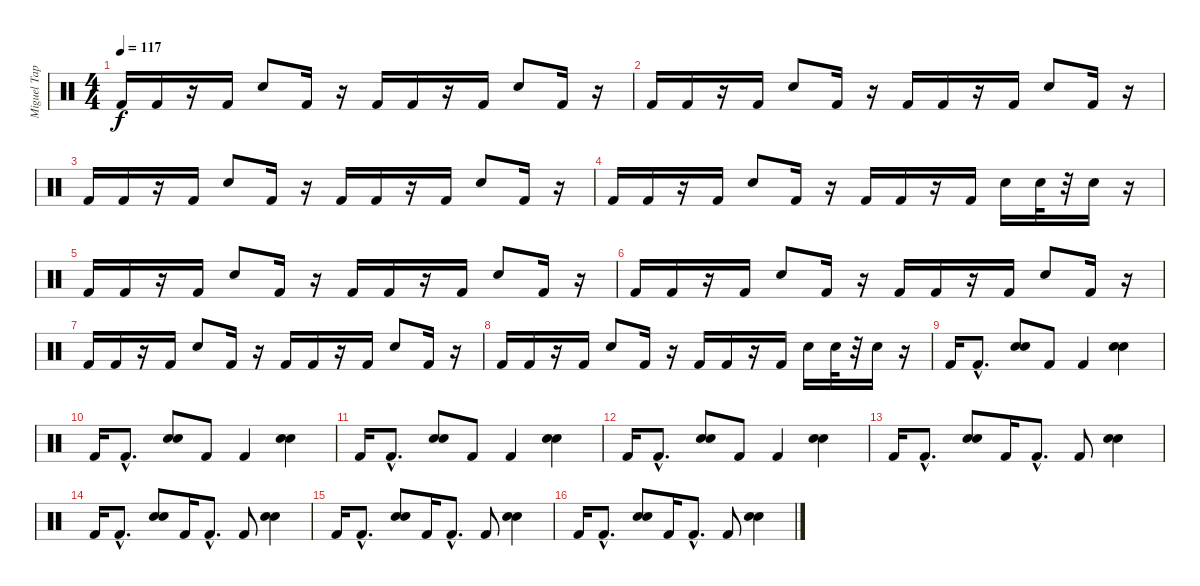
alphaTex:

\track ("Miguel Tapia" "Miguel Tap") {instrument percussion}
\staff {score}
\articulation defaults
\ts (4 4)
\tempo 117
\clef neutral
\ks c "Kick (hit) 2".16{dy f} "Kick (hit) 2".16
r.16 "Kick (hit) 2".16 "Electric Snare (hit)".8 "Kick (hit) 2".16 r.16 "Kick (hit) 2".16 "Kick (hit) 2".16 r.16 "Kick (hit) 2".16 "Electric Snare (hit)".8 "Kick (hit) 2".16 r.16 |
"Kick (hit) 2".16 "Kick (hit) 2".16 r.16 "Kick (hit) 2".16 "Electric Snare (hit)".8 "Kick (hit) 2".16 r.16 "Kick (hit) 2".16 "Kick (hit) 2".16 r.16 "Kick (hit) 2".16 "Electric Snare (hit)".8 "Kick (hit) 2".16 r.16 |
"Kick (hit) 2".16 "Kick (hit) 2".16 r.16 "Kick (hit) 2".16 "Electric Snare (hit)".8 "Kick (hit) 2".16 r.16 "Kick (hit) 2".16 "Kick (hit) 2".16 r.16 "Kick (hit) 2".16 "Electric Snare (hit)".8 "Kick (hit) 2".16 r.16 |
"Kick (hit) 2".16 "Kick (hit) 2".16 r.16 "Kick (hit) 2".16 "Electric Snare (hit)".8 "Kick (hit) 2".16 r.16 "Kick (hit) 2".16 "Kick (hit) 2".16 r.16 "Kick (hit) 2".16 "Electric Snare (hit)".16 "Electric Snare (hit)".32 r.32 "Electric Snare (hit)".16 r.16 |
"Kick (hit) 2".16 "Kick (hit) 2".16 r.16 "Kick (hit) 2".16 "Electric Snare (hit)".8 "Kick (hit) 2".16 r.16 "Kick (hit) 2".16 "Kick (hit) 2".16 r.16 "Kick (hit) 2".16 "Electric Snare (hit)".8 "Kick (hit) 2".16 r.16 |
"Kick (hit) 2".16 "Kick (hit) 2".16 r.16 "Kick (hit) 2".16 "Electric Snare (hit)".8 "Kick (hit) 2".16 r.16 "Kick (hit) 2".16 "Kick (hit) 2".16 r.16 "Kick (hit) 2".16 "Electric Snare (hit)".8 "Kick (hit) 2".16 r.16 |
"Kick (hit) 2".16 "Kick (hit) 2".16 r.16 "Kick (hit) 2".16 "Electric Snare (hit)".8 "Kick (hit) 2".16 r.16 "Kick (hit) 2".16 "Kick (hit) 2".16 r.16 "Kick (hit) 2".16 "Electric Snare (hit)".8 "Kick (hit) 2".16 r.16 |
"Kick (hit) 2".16 "Kick (hit) 2".16 r.16 "Kick (hit) 2".16 "Electric Snare (hit)".8 "Kick (hit) 2".16 r.16 "Kick (hit) 2".16 "Kick (hit) 2".16 r.16 "Kick (hit) 2".16 "Electric Snare (hit)".16 "Electric Snare (hit)".32 r.32 "Electric Snare (hit)".16 r.16 |
"Kick (hit) 2".16 "Kick (hit) 2"{hac}.8{d} ("Snare (hit) 2" "Electric Snare (hit)").8 "Kick (hit) 2".8 "Kick (hit) 2".4 ("Snare (hit) 2" "Electric Snare (hit)").4 |
"Kick (hit) 2".16 "Kick (hit) 2"{hac}.8{d} ("Snare (hit) 2" "Electric Snare (hit)").8 "Kick (hit) 2".8 "Kick (hit) 2".4 ("Snare (hit) 2" "Electric Snare (hit)").4 |
"Kick (hit) 2".16 "Kick (hit) 2"{hac}.8{d} ("Snare (hit) 2" "Electric Snare (hit)").8 "Kick (hit) 2".8 "Kick (hit) 2".4 ("Snare (hit) 2" "Electric Snare (hit)").4 |
"Kick (hit) 2".16 "Kick (hit) 2"{hac}.8{d} ("Snare (hit) 2" "Electric Snare (hit)").8 "Kick (hit) 2".8 "Kick (hit) 2".4 ("Snare (hit) 2" "Electric Snare (hit)").4 |
"Kick (hit) 2".16 "Kick (hit) 2"{hac}.8{d} ("Snare (hit) 2" "Electric Snare (hit)").8 "Kick (hit) 2".16 "Kick (hit) 2"{hac}.8{d} "Kick (hit) 2".8 ("Snare (hit) 2" "Electric Snare (hit)").4 |
"Kick (hit) 2".16 "Kick (hit) 2"{hac}.8{d} ("Snare (hit) 2" "Electric Snare (hit)").8 "Kick (hit) 2".16 "Kick (hit) 2"{hac}.8{d} "Kick (hit) 2".8 ("Snare (hit) 2" "Electric Snare (hit)").4 |
"Kick (hit) 2".16 "Kick (hit) 2"{hac}.8{d} ("Snare (hit) 2" "Electric Snare (hit)").8 "Kick (hit) 2".16 "Kick (hit) 2"{hac}.8{d} "Kick (hit) 2".8 ("Snare (hit) 2" "Electric Snare (hit)").4 |
"Kick (hit) 2".16 "Kick (hit) 2"{hac}.8{d} ("Snare (hit) 2" "Electric Snare (hit)").8 "Kick (hit) 2".16 "Kick (hit) 2"{hac}.8{d} "Kick (hit) 2".8 ("Snare (hit) 2" "Electric Snare (hit)").4
